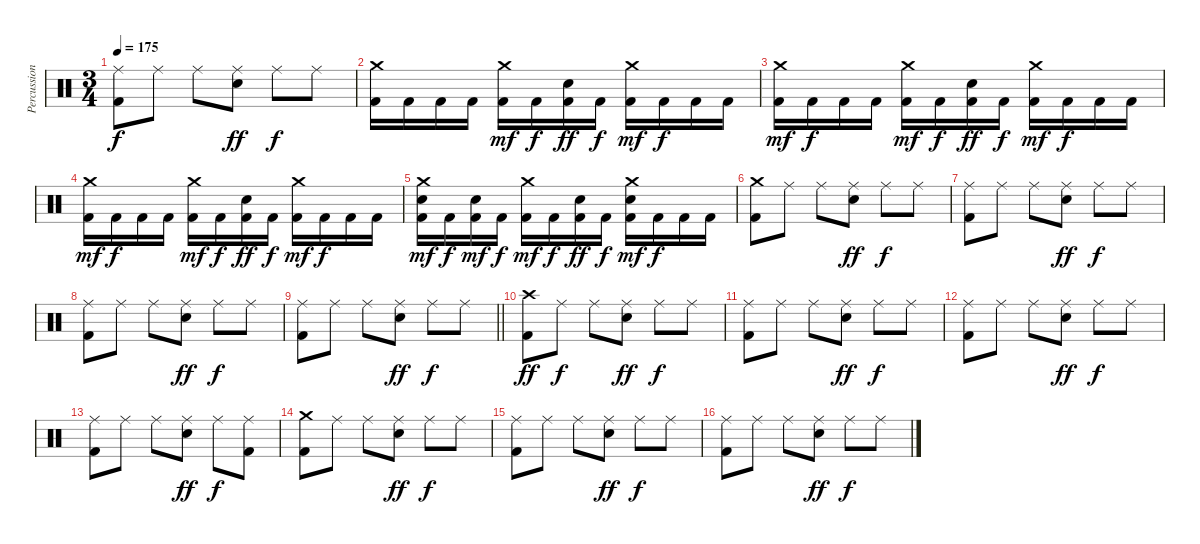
\track ("Percussions" "Percussion") {instrument percussion}
\staff {score}
\articulation defaults
\ts (3 4)
\tempo 175
\clef neutral
\ks c
("Ride (middle)" "Kick (hit) 2").8{dy f} "Ride (middle)".8 "Ride (middle)".8 ("Ride (middle)" "Electric Snare (hit)").8{dy ff} "Ride (middle)".8{dy f} "Ride (middle)".8 |
("Crash medium (hit)" "Kick (hit) 2").16 "Kick (hit) 2".16 "Kick (hit) 2".16 "Kick (hit) 2".16 ("Crash medium (hit)" "Kick (hit) 2").16{dy mf} "Kick (hit) 2".16{dy f} ("Electric Snare (hit)" "Kick (hit) 2").16{dy ff} "Kick (hit) 2".16{dy f} ("Crash medium (hit)" "Kick (hit) 2").16{dy mf} "Kick (hit) 2".16{dy f} "Kick (hit) 2".16 "Kick (hit) 2".16 |
("Crash medium (hit)" "Kick (hit) 2").16{dy mf} "Kick (hit) 2".16{dy f} "Kick (hit) 2".16 "Kick (hit) 2".16 ("Crash medium (hit)" "Kick (hit) 2").16{dy mf} "Kick (hit) 2".16{dy f} ("Electric Snare (hit)" "Kick (hit) 2").16{dy ff} "Kick (hit) 2".16{dy f} ("Crash medium (hit)" "Kick (hit) 2").16{dy mf} "Kick (hit) 2".16{dy f} "Kick (hit) 2".16 "Kick (hit) 2".16 |
("Crash medium (hit)" "Kick (hit) 2").16{dy mf} "Kick (hit) 2".16{dy f} "Kick (hit) 2".16 "Kick (hit) 2".16 ("Crash medium (hit)" "Kick (hit) 2").16{dy mf} "Kick (hit) 2".16{dy f} ("Electric Snare (hit)" "Kick (hit) 2").16{dy ff} "Kick (hit) 2".16{dy f} ("Crash medium (hit)" "Kick (hit) 2").16{dy mf} "Kick (hit) 2".16{dy f} "Kick (hit) 2".16 "Kick (hit) 2".16 |
("Crash medium (hit)" "Electric Snare (hit)" "Kick (hit) 2").16{dy mf} "Kick (hit) 2".16{dy f} ("Electric Snare (hit)" "Kick (hit) 2").16{dy mf} "Kick (hit) 2".16{dy f} ("Crash medium (hit)" "Kick (hit) 2").16{dy mf} "Kick (hit) 2".16{dy f} ("Electric Snare (hit)" "Kick (hit) 2").16{dy ff} "Kick (hit) 2".16{dy f} ("Crash medium (hit)" "Electric Snare (hit)" "Kick (hit) 2").16{dy mf} "Kick (hit) 2".16{dy f} "Kick (hit) 2".16 "Kick (hit) 2".16 |
("Crash medium (hit)" "Kick (hit) 2").8 "Ride (middle)".8 "Ride (middle)".8 ("Ride (middle)" "Electric Snare (hit)").8{dy ff} "Ride (middle)".8{dy f} "Ride (middle)".8 |
("Ride (middle)" "Kick (hit) 2").8 "Ride (middle)".8 "Ride (middle)".8 ("Ride (middle)" "Electric Snare (hit)").8{dy ff} "Ride (middle)".8{dy f} "Ride (middle)".8 |
("Ride (middle)" "Kick (hit) 2").8 "Ride (middle)".8 "Ride (middle)".8 ("Ride (middle)" "Electric Snare (hit)").8{dy ff} "Ride (middle)".8{dy f} "Ride (middle)".8 |
\barLineRight lightlight
("Ride (middle)" "Kick (hit) 2").8 "Ride (middle)".8 "Ride (middle)".8 ("Ride (middle)" "Electric Snare (hit)").8{dy ff} "Ride (middle)".8{dy f} "Ride (middle)".8 |
("Crash high (hit)" "Kick (hit) 2").8{dy ff} "Ride (middle)".8{dy f} "Ride (middle)".8 ("Ride (middle)" "Electric Snare (hit)").8{dy ff} "Ride (middle)".8{dy f} "Ride (middle)".8 |
("Ride (middle)" "Kick (hit) 2").8 "Ride (middle)".8 "Ride (middle)".8 ("Ride (middle)" "Electric Snare (hit)").8{dy ff} "Ride (middle)".8{dy f} "Ride (middle)".8 |
("Ride (middle)" "Kick (hit) 2").8 "Ride (middle)".8 "Ride (middle)".8 ("Ride (middle)" "Electric Snare (hit)").8{dy ff} "Ride (middle)".8{dy f} "Ride (middle)".8 |
("Ride (middle)" "Kick (hit) 2").8 "Ride (middle)".8 "Ride (middle)".8 ("Ride (middle)" "Electric Snare (hit)").8{dy ff} "Ride (middle)".8{dy f} ("Ride (middle)" "Kick (hit) 2").8 |
("Crash medium (hit)" "Kick (hit) 2").8 "Ride (middle)".8 "Ride (middle)".8 ("Ride (middle)" "Electric Snare (hit)").8{dy ff} "Ride (middle)".8{dy f} "Ride (middle)".8 |
("Ride (middle)" "Kick (hit) 2").8 "Ride (middle)".8 "Ride (middle)".8 ("Ride (middle)" "Electric Snare (hit)").8{dy ff} "Ride (middle)".8{dy f} "Ride (middle)".8 |
("Ride (middle)" "Kick (hit) 2").8 "Ride (middle)".8 "Ride (middle)".8 ("Ride (middle)" "Electric Snare (hit)").8{dy ff} "Ride (middle)".8{dy f} "Ride (middle)".8
